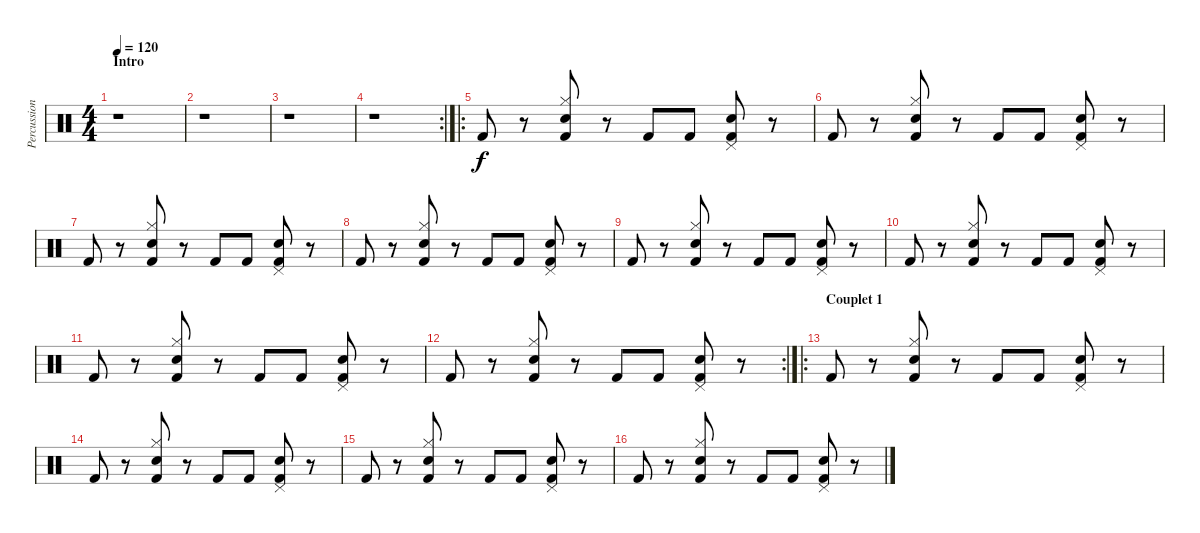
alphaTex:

\track ("Percussions" "Percussion") {instrument percussion}
\staff {score}
\articulation defaults
\ts (4 4)
\section ("" "Intro")
\tempo 120
\clef neutral
\ks c
r.1{dy f} |
r.1 |
r.1 |
\rc 2
r.1 |
\ro "Kick (hit) 2".8
r.8 ("Hi-Hat (closed)" "Snare (hit) 2" "Kick (hit) 2").8 r.8 "Kick (hit) 2".8 "Kick (hit) 2".8 ("Snare (hit) 2" "Pedal Hi-Hat (hit)" "Kick (hit) 2").8 r.8 |
"Kick (hit) 2".8 r.8 ("Hi-Hat (closed)" "Snare (hit) 2" "Kick (hit) 2").8 r.8 "Kick (hit) 2".8 "Kick (hit) 2".8 ("Snare (hit) 2" "Pedal Hi-Hat (hit)" "Kick (hit) 2").8 r.8 |
"Kick (hit) 2".8 r.8 ("Hi-Hat (closed)" "Snare (hit) 2" "Kick (hit) 2").8 r.8 "Kick (hit) 2".8 "Kick (hit) 2".8 ("Snare (hit) 2" "Pedal Hi-Hat (hit)" "Kick (hit) 2").8 r.8 |
"Kick (hit) 2".8 r.8 ("Hi-Hat (closed)" "Snare (hit) 2" "Kick (hit) 2").8 r.8 "Kick (hit) 2".8 "Kick (hit) 2".8 ("Snare (hit) 2" "Pedal Hi-Hat (hit)" "Kick (hit) 2").8 r.8 |
"Kick (hit) 2".8 r.8 ("Hi-Hat (closed)" "Snare (hit) 2" "Kick (hit) 2").8 r.8 "Kick (hit) 2".8 "Kick (hit) 2".8 ("Snare (hit) 2" "Pedal Hi-Hat (hit)" "Kick (hit) 2").8 r.8 |
"Kick (hit) 2".8 r.8 ("Hi-Hat (closed)" "Snare (hit) 2" "Kick (hit) 2").8 r.8 "Kick (hit) 2".8 "Kick (hit) 2".8 ("Snare (hit) 2" "Pedal Hi-Hat (hit)" "Kick (hit) 2").8 r.8 |
"Kick (hit) 2".8 r.8 ("Hi-Hat (closed)" "Snare (hit) 2" "Kick (hit) 2").8 r.8 "Kick (hit) 2".8 "Kick (hit) 2".8 ("Snare (hit) 2" "Pedal Hi-Hat (hit)" "Kick (hit) 2").8 r.8 |
\rc 2 "Kick (hit) 2".8
r.8 ("Hi-Hat (closed)" "Snare (hit) 2" "Kick (hit) 2").8 r.8 "Kick (hit) 2".8 "Kick (hit) 2".8 ("Snare (hit) 2" "Pedal Hi-Hat (hit)" "Kick (hit) 2").8 r.8 |
\ro
\section ("" "Couplet 1")
"Kick (hit) 2".8 r.8 ("Hi-Hat (closed)" "Snare (hit) 2" "Kick (hit) 2").8 r.8 "Kick (hit) 2".8 "Kick (hit) 2".8 ("Snare (hit) 2" "Pedal Hi-Hat (hit)" "Kick (hit) 2").8 r.8 |
"Kick (hit) 2".8 r.8 ("Hi-Hat (closed)" "Snare (hit) 2" "Kick (hit) 2").8 r.8 "Kick (hit) 2".8 "Kick (hit) 2".8 ("Snare (hit) 2" "Pedal Hi-Hat (hit)" "Kick (hit) 2").8 r.8 |
"Kick (hit) 2".8 r.8 ("Hi-Hat (closed)" "Snare (hit) 2" "Kick (hit) 2").8 r.8 "Kick (hit) 2".8 "Kick (hit) 2".8 ("Snare (hit) 2" "Pedal Hi-Hat (hit)" "Kick (hit) 2").8 r.8 |
"Kick (hit) 2".8 r.8 ("Hi-Hat (closed)" "Snare (hit) 2" "Kick (hit) 2").8 r.8 "Kick (hit) 2".8 "Kick (hit) 2".8 ("Snare (hit) 2" "Pedal Hi-Hat (hit)" "Kick (hit) 2").8 r.8
